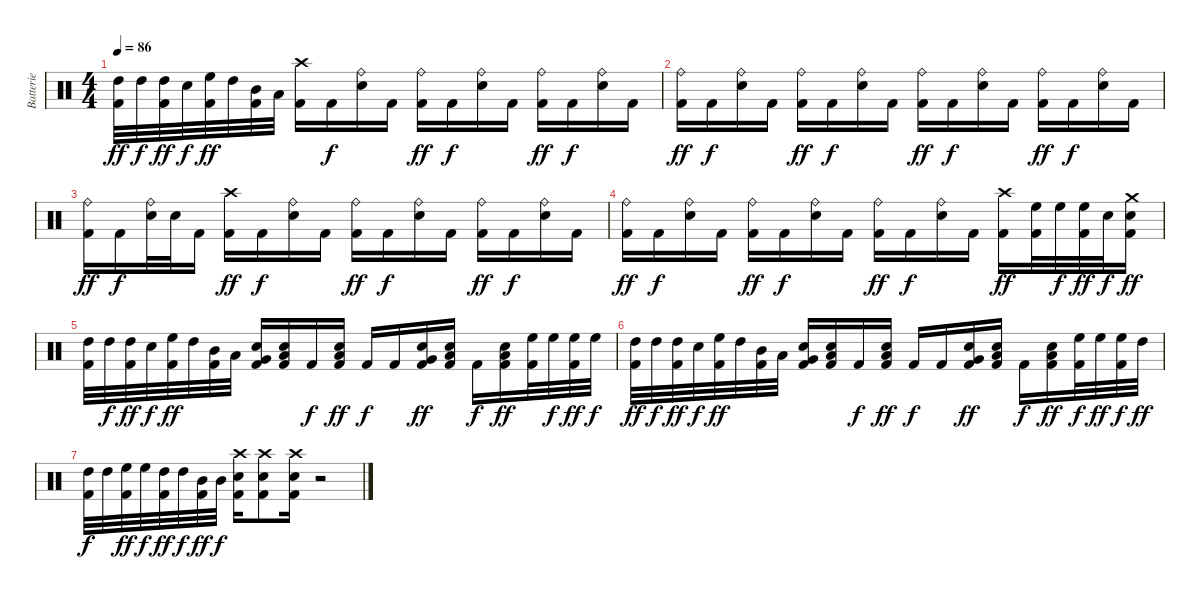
\track ("Batterie" "Batterie") {instrument percussion}
\staff {score}
\articulation defaults
\ts (4 4)
\tempo 86
\clef neutral
\ks c
("High Tom (hit)" "Kick (hit) 2").32{dy ff} "High Tom (hit)".32{dy f} ("High Tom (hit)" "Kick (hit) 2").32{dy ff} "Snare (hit) 2".32{dy f} ("High Floor Tom (hit)" "Kick (hit) 2").32{dy ff} "High Tom (hit)".32 ("Mid Tom (hit)" "Kick (hit) 2").32 "Low Tom (hit)".32 ("Crash high (hit)" "Kick (hit) 2").16 "Kick (hit) 2".16{dy f} ("Ride (bell)" "Snare (hit) 2").16 "Kick (hit) 2".16 ("Ride (bell)" "Kick (hit) 2").16{dy ff} "Kick (hit) 2".16{dy f} ("Ride (bell)" "Snare (hit) 2").16 "Kick (hit) 2".16 ("Ride (bell)" "Kick (hit) 2").16{dy ff} "Kick (hit) 2".16{dy f} ("Ride (bell)" "Snare (hit) 2").16 "Kick (hit) 2".16 |
("Ride (bell)" "Kick (hit) 2").16{dy ff} "Kick (hit) 2".16{dy f} ("Ride (bell)" "Snare (hit) 2").16 "Kick (hit) 2".16 ("Ride (bell)" "Kick (hit) 2").16{dy ff} "Kick (hit) 2".16{dy f} ("Ride (bell)" "Snare (hit) 2").16 "Kick (hit) 2".16 ("Ride (bell)" "Kick (hit) 2").16{dy ff} "Kick (hit) 2".16{dy f} ("Ride (bell)" "Snare (hit) 2").16 "Kick (hit) 2".16 ("Ride (bell)" "Kick (hit) 2").16{dy ff} "Kick (hit) 2".16{dy f} ("Ride (bell)" "Snare (hit) 2").16 "Kick (hit) 2".16 |
("Ride (bell)" "Kick (hit) 2").16{dy ff} "Kick (hit) 2".16{dy f} ("Ride (bell)" "Snare (hit) 2").32 "Snare (hit) 2".32 "Kick (hit) 2".16 ("Crash high (hit)" "Kick (hit) 2").16{dy ff} "Kick (hit) 2".16{dy f} ("Ride (bell)" "Snare (hit) 2").16 "Kick (hit) 2".16 ("Ride (bell)" "Kick (hit) 2").16{dy ff} "Kick (hit) 2".16{dy f} ("Ride (bell)" "Snare (hit) 2").16 "Kick (hit) 2".16 ("Ride (bell)" "Kick (hit) 2").16{dy ff} "Kick (hit) 2".16{dy f} ("Ride (bell)" "Snare (hit) 2").16 "Kick (hit) 2".16 |
("Ride (bell)" "Kick (hit) 2").16{dy ff} "Kick (hit) 2".16{dy f} ("Ride (bell)" "Snare (hit) 2").16 "Kick (hit) 2".16 ("Ride (bell)" "Kick (hit) 2").16{dy ff} "Kick (hit) 2".16{dy f} ("Ride (bell)" "Snare (hit) 2").16 "Kick (hit) 2".16 ("Ride (bell)" "Kick (hit) 2").16{dy ff} "Kick (hit) 2".16{dy f} ("Ride (bell)" "Snare (hit) 2").16 "Kick (hit) 2".16 ("Crash high (hit)" "Kick (hit) 2").16{dy ff} ("High Floor Tom (hit)" "Kick (hit) 2").32 "High Floor Tom (hit)".32{dy f} ("High Floor Tom (hit)" "Kick (hit) 2").32{dy ff} "Snare (hit) 2".32{dy f} ("Crash medium (hit)" "Snare (hit) 2" "Kick (hit) 2").16{dy ff} |
("High Tom (hit)" "Kick (hit) 2").32 "High Tom (hit)".32{dy f} ("High Tom (hit)" "Kick (hit) 2").32{dy ff} "Snare (hit) 2".32{dy f} ("High Floor Tom (hit)" "Kick (hit) 2").32{dy ff} "High Tom (hit)".32 ("Mid Tom (hit)" "Kick (hit) 2").32 "Low Tom (hit)".32 ("Very Low Tom (hit)" "Snare (hit) 2" "Kick (hit) 2").16 ("Low Floor Tom (hit)" "Snare (hit) 2" "Kick (hit) 2").16 "Kick (hit) 2".16{dy f} ("Low Floor Tom (hit)" "Snare (hit) 2" "Kick (hit) 2").16{dy ff} "Kick (hit) 2".16{dy f} "Kick (hit) 2".16 ("Very Low Tom (hit)" "Snare (hit) 2" "Kick (hit) 2").16{dy ff} ("Low Floor Tom (hit)" "Snare (hit) 2" "Kick (hit) 2").16 "Kick (hit) 2".16{dy f} ("Low Floor Tom (hit)" "Snare (hit) 2" "Kick (hit) 2").16{dy ff} ("High Floor Tom (hit)" "Kick (hit) 2").32 "High Floor Tom (hit)".32{dy f} ("High Floor Tom (hit)" "Kick (hit) 2").32{dy ff} "High Floor Tom (hit)".32{dy f} |
("High Tom (hit)" "Kick (hit) 2").32{dy ff} "High Tom (hit)".32{dy f} ("High Tom (hit)" "Kick (hit) 2").32{dy ff} "Snare (hit) 2".32{dy f} ("High Floor Tom (hit)" "Kick (hit) 2").32{dy ff} "High Tom (hit)".32 ("Mid Tom (hit)" "Kick (hit) 2").32 "Low Tom (hit)".32 ("Very Low Tom (hit)" "Snare (hit) 2" "Kick (hit) 2").16 ("Low Floor Tom (hit)" "Snare (hit) 2" "Kick (hit) 2").16 "Kick (hit) 2".16{dy f} ("Low Floor Tom (hit)" "Snare (hit) 2" "Kick (hit) 2").16{dy ff} "Kick (hit) 2".16{dy f} "Kick (hit) 2".16 ("Very Low Tom (hit)" "Snare (hit) 2" "Kick (hit) 2").16{dy ff} ("Low Floor Tom (hit)" "Snare (hit) 2" "Kick (hit) 2").16 "Kick (hit) 2".16{dy f} ("Low Floor Tom (hit)" "Snare (hit) 2" "Kick (hit) 2").16{dy ff} ("High Floor Tom (hit)" "Kick (hit) 2").32{dy f} "High Floor Tom (hit)".32{dy ff} ("High Floor Tom (hit)" "Kick (hit) 2").32{dy f} "High Tom (hit)".32{dy ff} |
("High Tom (hit)" "Kick (hit) 2").32{dy f} "High Tom (hit)".32 ("High Floor Tom (hit)" "Kick (hit) 2").32{dy ff} "High Floor Tom (hit)".32{dy f} ("High Tom (hit)" "Kick (hit) 2").32{dy ff} "High Tom (hit)".32{dy f} ("Mid Tom (hit)" "Kick (hit) 2").32{dy ff} "Mid Tom (hit)".32{dy f} ("Crash high (hit)" "Snare (hit) 2" "Kick (hit) 2").16 ("Crash high (hit)" "Snare (hit) 2" "Kick (hit) 2").8 ("Crash high (hit)" "Snare (hit) 2" "Kick (hit) 2").16 r.2
